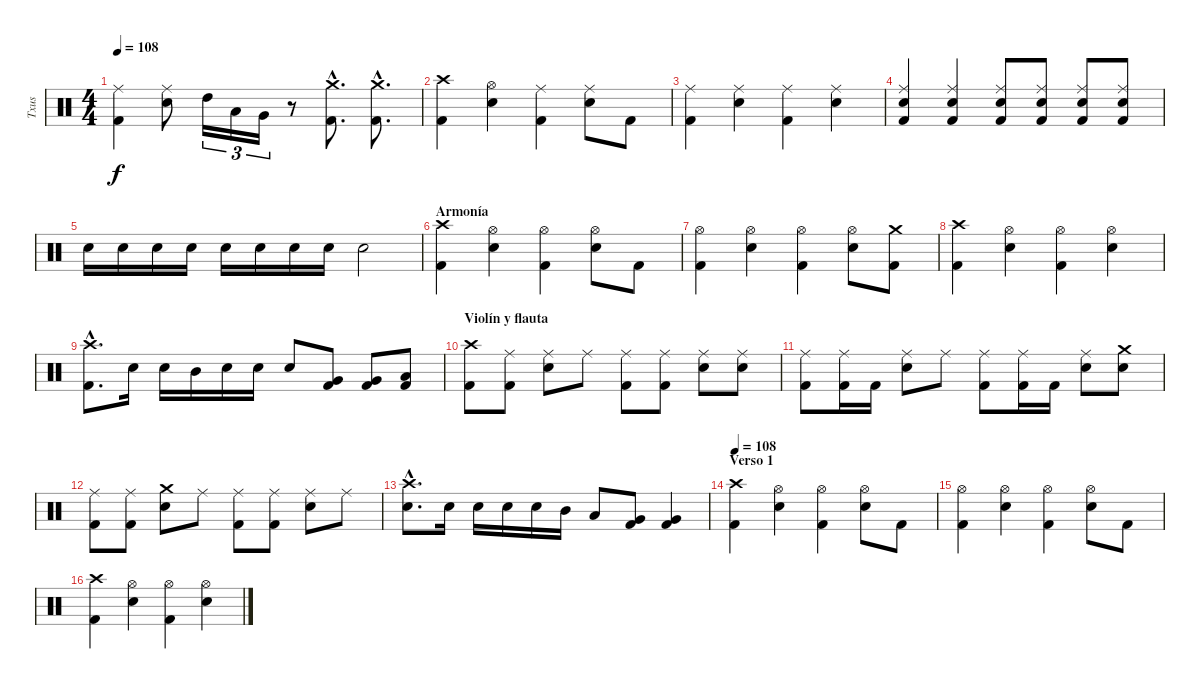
\track ("Txus" "Txus") {instrument percussion}
\staff {score}
\articulation defaults
\ts (4 4)
\tempo 108
\clef neutral
\ks c
("Kick (hit) 2" "Ride (middle)").4{dy f} ("Electric Snare (hit)" "Ride (middle)").8 "High Tom (hit)".16{tu (3 2)} "Low Tom (hit)".16{tu (3 2)} "Very Low Tom (hit)".16{tu (3 2)} r.8 ("Kick (hit) 2"{hac} "Crash medium (hit)"{hac}).8{d} ("Kick (hit) 2"{hac} "Crash medium (hit)"{hac}).8{d} |
("Kick (hit) 2" "Crash high (hit)").4 ("Electric Snare (hit)" "Hi-Hat (open)").4 ("Kick (hit) 2" "Ride (middle)").4 ("Electric Snare (hit)" "Ride (middle)").8 "Kick (hit) 2".8 |
("Kick (hit) 2" "Ride (middle)").4 ("Electric Snare (hit)" "Ride (middle)").4 ("Kick (hit) 2" "Ride (middle)").4 ("Electric Snare (hit)" "Ride (middle)").4 |
("Kick (hit) 2" "Electric Snare (hit)" "Ride (middle)").4 ("Kick (hit) 2" "Electric Snare (hit)" "Ride (middle)").4 ("Kick (hit) 2" "Electric Snare (hit)" "Ride (middle)").8 ("Kick (hit) 2" "Electric Snare (hit)" "Ride (middle)").8 ("Kick (hit) 2" "Electric Snare (hit)" "Ride (middle)").8 ("Kick (hit) 2" "Electric Snare (hit)" "Ride (middle)").8 |
"Electric Snare (hit)".16 "Electric Snare (hit)".16 "Electric Snare (hit)".16 "Electric Snare (hit)".16 "Electric Snare (hit)".16 "Electric Snare (hit)".16 "Electric Snare (hit)".16 "Electric Snare (hit)".16 "Electric Snare (hit)".2 |
\section ("" "Armonía")
("Kick (hit) 2" "Crash high (hit)").4 ("Electric Snare (hit)" "Hi-Hat (open)").4 ("Kick (hit) 2" "Hi-Hat (open)").4 ("Electric Snare (hit)" "Hi-Hat (open)").8 "Kick (hit) 2".8 |
("Kick (hit) 2" "Hi-Hat (open)").4 ("Electric Snare (hit)" "Hi-Hat (open)").4 ("Kick (hit) 2" "Hi-Hat (open)").4 ("Electric Snare (hit)" "Hi-Hat (open)").8 ("Kick (hit) 2" "Crash medium (hit)").8 |
("Kick (hit) 2" "Crash high (hit)").4 ("Electric Snare (hit)" "Hi-Hat (open)").4 ("Kick (hit) 2" "Hi-Hat (open)").4 ("Electric Snare (hit)" "Hi-Hat (open)").4 |
("Kick (hit) 2"{hac} "Crash high (hit)"{hac}).8{d} "Electric Snare (hit)".16 "Electric Snare (hit)".16 "Mid Tom (hit)".16 "Electric Snare (hit)".16 "Electric Snare (hit)".16 "Electric Snare (hit)".8 ("Kick (hit) 2" "Very Low Tom (hit)").8 ("Kick (hit) 2" "Very Low Tom (hit)").8 ("Kick (hit) 2" "Low Floor Tom (hit)").8 |
\section ("" "Violín y flauta")
("Kick (hit) 2" "Crash high (hit)").8 ("Kick (hit) 2" "Ride (middle)").8 ("Electric Snare (hit)" "Ride (middle)").8 "Ride (middle)".8 ("Kick (hit) 2" "Ride (middle)").8 ("Kick (hit) 2" "Ride (middle)").8 ("Electric Snare (hit)" "Ride (middle)").8 ("Electric Snare (hit)" "Ride (middle)").8 |
("Kick (hit) 2" "Ride (middle)").8 ("Kick (hit) 2" "Ride (middle)").16 "Kick (hit) 2".16 ("Electric Snare (hit)" "Ride (middle)").8 "Ride (middle)".8 ("Kick (hit) 2" "Ride (middle)").8 ("Kick (hit) 2" "Ride (middle)").16 "Kick (hit) 2".16 ("Electric Snare (hit)" "Ride (middle)").8 ("Electric Snare (hit)" "Crash medium (hit)").8 |
("Kick (hit) 2" "Ride (middle)").8 ("Kick (hit) 2" "Ride (middle)").8 ("Electric Snare (hit)" "Crash medium (hit)").8 "Ride (middle)".8 ("Kick (hit) 2" "Ride (middle)").8 ("Kick (hit) 2" "Ride (middle)").8 ("Electric Snare (hit)" "Ride (middle)").8 "Ride (middle)".8 |
("Electric Snare (hit)"{hac} "Crash high (hit)"{hac}).8{d} "Electric Snare (hit)".16 "Electric Snare (hit)".16 "Electric Snare (hit)".16 "Electric Snare (hit)".16 "Mid Tom (hit)".16 "Low Tom (hit)".8 ("Kick (hit) 2" "Very Low Tom (hit)").8 ("Kick (hit) 2" "Very Low Tom (hit)").4 |
\section ("" "Verso 1")
\tempo 108
("Kick (hit) 2" "Crash high (hit)").4 ("Electric Snare (hit)" "Hi-Hat (open)").4 ("Kick (hit) 2" "Hi-Hat (open)").4 ("Electric Snare (hit)" "Hi-Hat (open)").8 "Kick (hit) 2".8 |
("Kick (hit) 2" "Hi-Hat (open)").4 ("Electric Snare (hit)" "Hi-Hat (open)").4 ("Kick (hit) 2" "Hi-Hat (open)").4 ("Electric Snare (hit)" "Hi-Hat (open)").8 "Kick (hit) 2".8 |
("Kick (hit) 2" "Crash high (hit)").4 ("Electric Snare (hit)" "Hi-Hat (open)").4 ("Kick (hit) 2" "Hi-Hat (open)").4 ("Electric Snare (hit)" "Hi-Hat (open)").4
